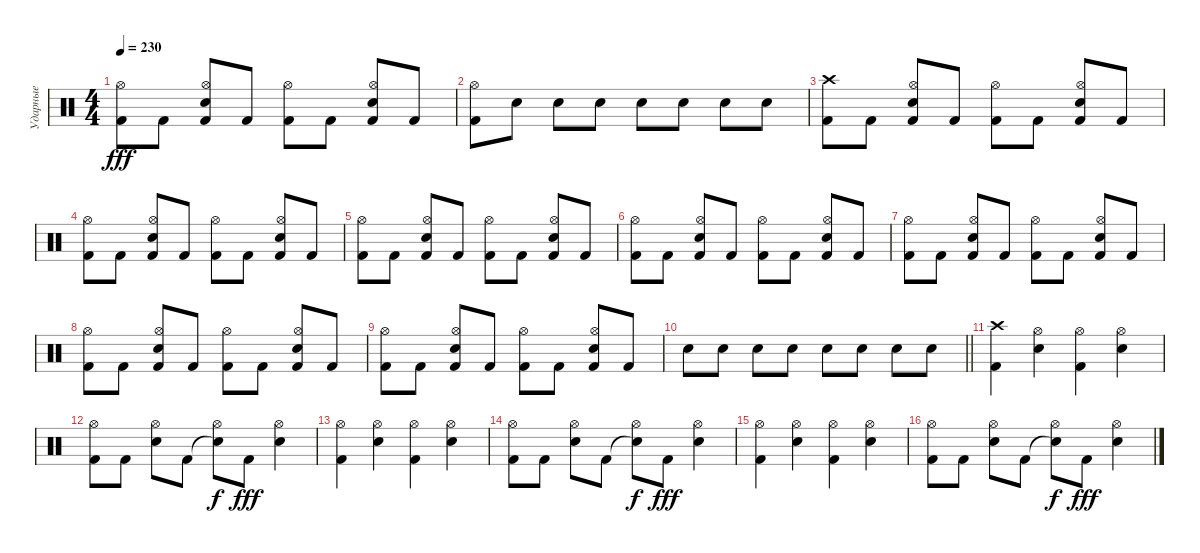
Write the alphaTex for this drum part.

\track ("Ударные" "Ударные") {instrument percussion}
\staff {score}
\articulation defaults
\ts (4 4)
\tempo 230
\clef neutral
\ks c
("Kick (hit) 2" "Hi-Hat (open)").8{dy fff} "Kick (hit) 2".8 ("Kick (hit) 2" "Snare (hit) 2" "Hi-Hat (open)").8 "Kick (hit) 2".8 ("Kick (hit) 2" "Hi-Hat (open)").8 "Kick (hit) 2".8 ("Kick (hit) 2" "Snare (hit) 2" "Hi-Hat (open)").8 "Kick (hit) 2".8 |
("Kick (hit) 2" "Hi-Hat (open)").8 "Snare (hit) 2".8 "Snare (hit) 2".8 "Snare (hit) 2".8 "Snare (hit) 2".8 "Snare (hit) 2".8 "Snare (hit) 2".8 "Snare (hit) 2".8 |
("Kick (hit) 2" "Crash high (hit)").8 "Kick (hit) 2".8 ("Kick (hit) 2" "Snare (hit) 2" "Hi-Hat (open)").8 "Kick (hit) 2".8 ("Kick (hit) 2" "Hi-Hat (open)").8 "Kick (hit) 2".8 ("Kick (hit) 2" "Snare (hit) 2" "Hi-Hat (open)").8 "Kick (hit) 2".8 |
("Kick (hit) 2" "Hi-Hat (open)").8 "Kick (hit) 2".8 ("Kick (hit) 2" "Snare (hit) 2" "Hi-Hat (open)").8 "Kick (hit) 2".8 ("Kick (hit) 2" "Hi-Hat (open)").8 "Kick (hit) 2".8 ("Kick (hit) 2" "Snare (hit) 2" "Hi-Hat (open)").8 "Kick (hit) 2".8 |
("Kick (hit) 2" "Hi-Hat (open)").8 "Kick (hit) 2".8 ("Kick (hit) 2" "Snare (hit) 2" "Hi-Hat (open)").8 "Kick (hit) 2".8 ("Kick (hit) 2" "Hi-Hat (open)").8 "Kick (hit) 2".8 ("Kick (hit) 2" "Snare (hit) 2" "Hi-Hat (open)").8 "Kick (hit) 2".8 |
("Kick (hit) 2" "Hi-Hat (open)").8 "Kick (hit) 2".8 ("Kick (hit) 2" "Snare (hit) 2" "Hi-Hat (open)").8 "Kick (hit) 2".8 ("Kick (hit) 2" "Hi-Hat (open)").8 "Kick (hit) 2".8 ("Kick (hit) 2" "Snare (hit) 2" "Hi-Hat (open)").8 "Kick (hit) 2".8 |
("Kick (hit) 2" "Hi-Hat (open)").8 "Kick (hit) 2".8 ("Kick (hit) 2" "Snare (hit) 2" "Hi-Hat (open)").8 "Kick (hit) 2".8 ("Kick (hit) 2" "Hi-Hat (open)").8 "Kick (hit) 2".8 ("Kick (hit) 2" "Snare (hit) 2" "Hi-Hat (open)").8 "Kick (hit) 2".8 |
("Kick (hit) 2" "Hi-Hat (open)").8 "Kick (hit) 2".8 ("Kick (hit) 2" "Snare (hit) 2" "Hi-Hat (open)").8 "Kick (hit) 2".8 ("Kick (hit) 2" "Hi-Hat (open)").8 "Kick (hit) 2".8 ("Kick (hit) 2" "Snare (hit) 2" "Hi-Hat (open)").8 "Kick (hit) 2".8 |
("Kick (hit) 2" "Hi-Hat (open)").8 "Kick (hit) 2".8 ("Kick (hit) 2" "Snare (hit) 2" "Hi-Hat (open)").8 "Kick (hit) 2".8 ("Kick (hit) 2" "Hi-Hat (open)").8 "Kick (hit) 2".8 ("Kick (hit) 2" "Snare (hit) 2" "Hi-Hat (open)").8 "Kick (hit) 2".8 |
\barLineRight lightlight "Snare (hit) 2".8 "Snare (hit) 2".8 "Snare (hit) 2".8 "Snare (hit) 2".8 "Snare (hit) 2".8 "Snare (hit) 2".8 "Snare (hit) 2".8 "Snare (hit) 2".8
|
("Kick (hit) 2" "Crash high (hit)").4 ("Snare (hit) 2" "Hi-Hat (open)").4 ("Kick (hit) 2" "Hi-Hat (open)").4 ("Snare (hit) 2" "Hi-Hat (open)").4 |
("Kick (hit) 2" "Hi-Hat (open)").8 "Kick (hit) 2".8 ("Snare (hit) 2" "Hi-Hat (open)").8 "Kick (hit) 2".8 ("Snare (hit)"{t} "Hi-Hat (open)").8{dy f} "Kick (hit) 2".8{dy fff} ("Snare (hit) 2" "Hi-Hat (open)").4 |
("Kick (hit) 2" "Hi-Hat (open)").4 ("Snare (hit) 2" "Hi-Hat (open)").4 ("Kick (hit) 2" "Hi-Hat (open)").4 ("Snare (hit) 2" "Hi-Hat (open)").4 |
("Kick (hit) 2" "Hi-Hat (open)").8 "Kick (hit) 2".8 ("Snare (hit) 2" "Hi-Hat (open)").8 "Kick (hit) 2".8 ("Snare (hit)"{t} "Hi-Hat (open)").8{dy f} "Kick (hit) 2".8{dy fff} ("Snare (hit) 2" "Hi-Hat (open)").4 |
("Kick (hit) 2" "Hi-Hat (open)").4 ("Snare (hit) 2" "Hi-Hat (open)").4 ("Kick (hit) 2" "Hi-Hat (open)").4 ("Snare (hit) 2" "Hi-Hat (open)").4 |
("Kick (hit) 2" "Hi-Hat (open)").8 "Kick (hit) 2".8 ("Snare (hit) 2" "Hi-Hat (open)").8 "Kick (hit) 2".8 ("Snare (hit)"{t} "Hi-Hat (open)").8{dy f} "Kick (hit) 2".8{dy fff} ("Snare (hit) 2" "Hi-Hat (open)").4
